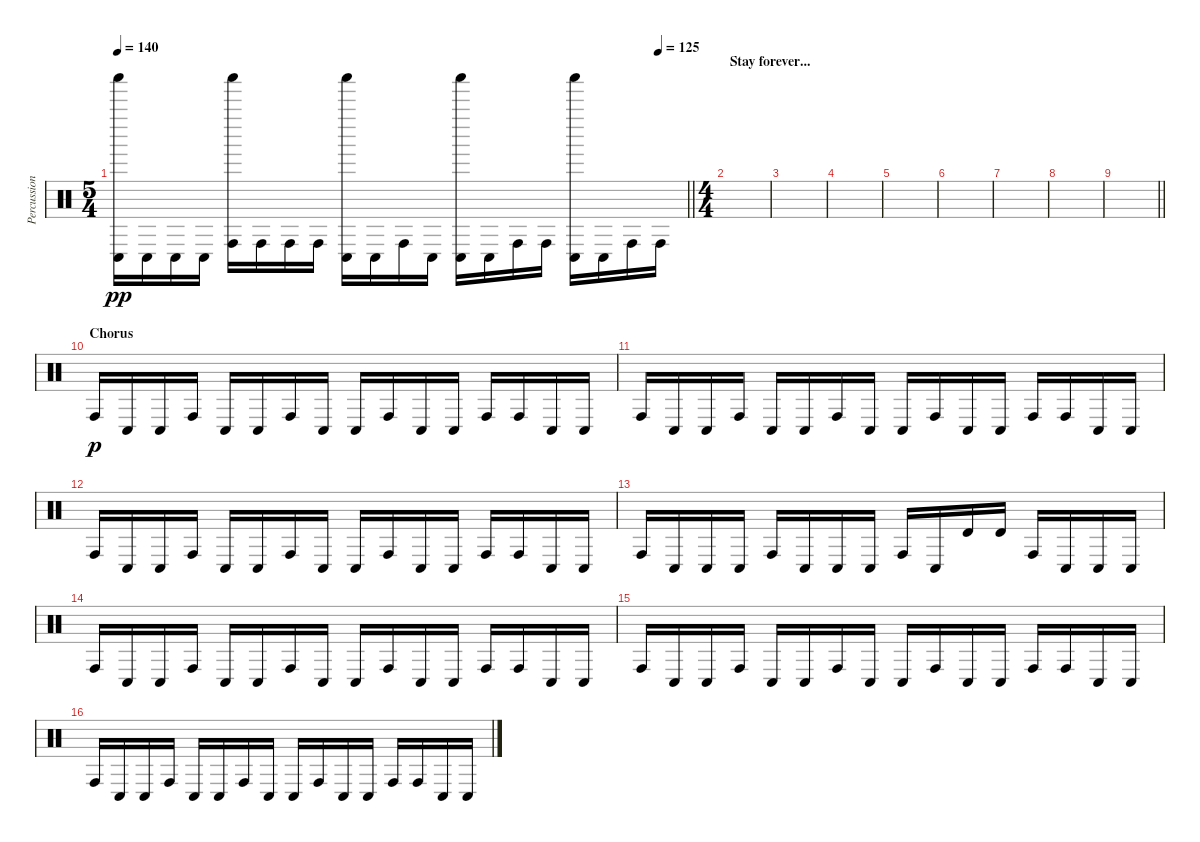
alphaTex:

\track ("Percussion" "Percussion") {instrument percussion}
\staff {score}
\articulation defaults
\ts (5 4)
\tempo 140
\tempo (125 0.95)
\clef neutral
\barLineRight lightlight
\ks c
("Shaker (hit)" "Conga low (hit)").16{dy pp} "Conga low (hit)".16 "Conga low (hit)".16 "Conga low (hit)".16 ("Shaker (hit)" "Conga high (hit)").16 "Conga high (hit)".16 "Conga high (hit)".16 "Conga high (hit)".16 ("Shaker (hit)" "Conga low (hit)").16 "Conga low (hit)".16 "Conga high (hit)".16 "Conga low (hit)".16 ("Shaker (hit)" "Conga low (hit)").16 "Conga low (hit)".16 "Conga high (hit)".16 "Conga high (hit)".16 ("Shaker (hit)" "Conga low (hit)").16 "Conga low (hit)".16 "Conga high (hit)".16 "Conga high (hit)".16 |
\ts (4 4)
\section ("" "Stay forever...")
|
|
|
|
|
|
|
\barLineRight lightlight
|
\section ("" "Chorus")
"Conga high (hit)".16{dy p} "Conga low (hit)".16 "Conga low (hit)".16 "Conga high (hit)".16 "Conga low (hit)".16 "Conga low (hit)".16 "Conga high (hit)".16 "Conga low (hit)".16 "Conga low (hit)".16 "Conga high (hit)".16 "Conga low (hit)".16 "Conga low (hit)".16 "Conga high (hit)".16 "Conga high (hit)".16 "Conga low (hit)".16 "Conga low (hit)".16 |
"Conga high (hit)".16 "Conga low (hit)".16 "Conga low (hit)".16 "Conga high (hit)".16 "Conga low (hit)".16 "Conga low (hit)".16 "Conga high (hit)".16 "Conga low (hit)".16 "Conga low (hit)".16 "Conga high (hit)".16 "Conga low (hit)".16 "Conga low (hit)".16 "Conga high (hit)".16 "Conga high (hit)".16 "Conga low (hit)".16 "Conga low (hit)".16 |
"Conga high (hit)".16 "Conga low (hit)".16 "Conga low (hit)".16 "Conga high (hit)".16 "Conga low (hit)".16 "Conga low (hit)".16 "Conga high (hit)".16 "Conga low (hit)".16 "Conga low (hit)".16 "Conga high (hit)".16 "Conga low (hit)".16 "Conga low (hit)".16 "Conga high (hit)".16 "Conga high (hit)".16 "Conga low (hit)".16 "Conga low (hit)".16 |
"Conga high (hit)".16 "Conga low (hit)".16 "Conga low (hit)".16 "Conga low (hit)".16 "Conga high (hit)".16 "Conga low (hit)".16 "Conga low (hit)".16 "Conga low (hit)".16 "Conga high (hit)".16 "Conga low (hit)".16 "Timbale high (hit)".16 "Timbale high (hit)".16 "Conga high (hit)".16 "Conga low (hit)".16 "Conga low (hit)".16 "Conga low (hit)".16 |
"Conga high (hit)".16 "Conga low (hit)".16 "Conga low (hit)".16 "Conga high (hit)".16 "Conga low (hit)".16 "Conga low (hit)".16 "Conga high (hit)".16 "Conga low (hit)".16 "Conga low (hit)".16 "Conga high (hit)".16 "Conga low (hit)".16 "Conga low (hit)".16 "Conga high (hit)".16 "Conga high (hit)".16 "Conga low (hit)".16 "Conga low (hit)".16 |
"Conga high (hit)".16 "Conga low (hit)".16 "Conga low (hit)".16 "Conga high (hit)".16 "Conga low (hit)".16 "Conga low (hit)".16 "Conga high (hit)".16 "Conga low (hit)".16 "Conga low (hit)".16 "Conga high (hit)".16 "Conga low (hit)".16 "Conga low (hit)".16 "Conga high (hit)".16 "Conga high (hit)".16 "Conga low (hit)".16 "Conga low (hit)".16 |
"Conga high (hit)".16 "Conga low (hit)".16 "Conga low (hit)".16 "Conga high (hit)".16 "Conga low (hit)".16 "Conga low (hit)".16 "Conga high (hit)".16 "Conga low (hit)".16 "Conga low (hit)".16 "Conga high (hit)".16 "Conga low (hit)".16 "Conga low (hit)".16 "Conga high (hit)".16 "Conga high (hit)".16 "Conga low (hit)".16 "Conga low (hit)".16
